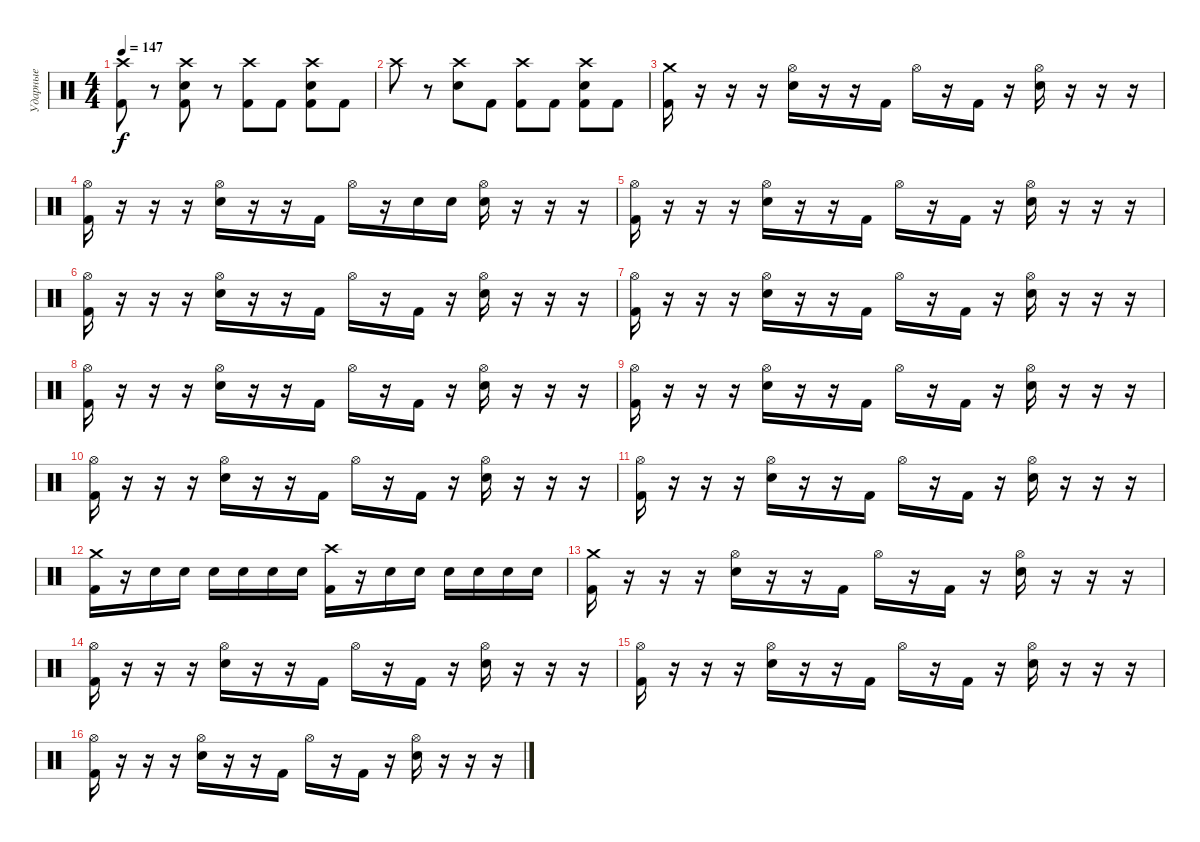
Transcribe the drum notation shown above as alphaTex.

\track ("Ударные" "Ударные") {instrument percussion}
\staff {score}
\articulation defaults
\ts (4 4)
\tempo 147
\clef neutral
\ks c
("Crash high (hit)" "Kick (hit) 2").8{dy f} r.8 ("Crash high (hit)" "Electric Snare (hit)" "Kick (hit) 2").8 r.8 ("Crash high (hit)" "Kick (hit) 2").8 "Kick (hit) 2".8 ("Crash high (hit)" "Electric Snare (hit)" "Kick (hit) 2").8 "Kick (hit) 2".8 |
"Crash high (hit)".8 r.8 ("Crash high (hit)" "Electric Snare (hit)").8 "Kick (hit) 2".8 ("Crash high (hit)" "Kick (hit) 2").8 "Kick (hit) 2".8 ("Crash high (hit)" "Electric Snare (hit)" "Kick (hit) 2").8 "Kick (hit) 2".8 |
("Crash medium (hit)" "Kick (hit) 2").16 r.16 r.16 r.16 ("Hi-Hat (open)" "Electric Snare (hit)").16 r.16 r.16 "Kick (hit) 2".16 "Hi-Hat (open)".16 r.16 "Kick (hit) 2".16 r.16 ("Hi-Hat (open)" "Electric Snare (hit)").16 r.16 r.16 r.16 |
("Hi-Hat (open)" "Kick (hit) 2").16 r.16 r.16 r.16 ("Hi-Hat (open)" "Electric Snare (hit)").16 r.16 r.16 "Kick (hit) 2".16 "Hi-Hat (open)".16 r.16 "Electric Snare (hit)".16 "Electric Snare (hit)".16 ("Hi-Hat (open)" "Electric Snare (hit)").16 r.16 r.16 r.16 |
("Hi-Hat (open)" "Kick (hit) 2").16 r.16 r.16 r.16 ("Hi-Hat (open)" "Electric Snare (hit)").16 r.16 r.16 "Kick (hit) 2".16 "Hi-Hat (open)".16 r.16 "Kick (hit) 2".16 r.16 ("Hi-Hat (open)" "Electric Snare (hit)").16 r.16 r.16 r.16 |
("Hi-Hat (open)" "Kick (hit) 2").16 r.16 r.16 r.16 ("Hi-Hat (open)" "Electric Snare (hit)").16 r.16 r.16 "Kick (hit) 2".16 "Hi-Hat (open)".16 r.16 "Kick (hit) 2".16 r.16 ("Hi-Hat (open)" "Electric Snare (hit)").16 r.16 r.16 r.16 |
("Hi-Hat (open)" "Kick (hit) 2").16 r.16 r.16 r.16 ("Hi-Hat (open)" "Electric Snare (hit)").16 r.16 r.16 "Kick (hit) 2".16 "Hi-Hat (open)".16 r.16 "Kick (hit) 2".16 r.16 ("Hi-Hat (open)" "Electric Snare (hit)").16 r.16 r.16 r.16 |
("Hi-Hat (open)" "Kick (hit) 2").16 r.16 r.16 r.16 ("Hi-Hat (open)" "Electric Snare (hit)").16 r.16 r.16 "Kick (hit) 2".16 "Hi-Hat (open)".16 r.16 "Kick (hit) 2".16 r.16 ("Hi-Hat (open)" "Electric Snare (hit)").16 r.16 r.16 r.16 |
("Hi-Hat (open)" "Kick (hit) 2").16 r.16 r.16 r.16 ("Hi-Hat (open)" "Electric Snare (hit)").16 r.16 r.16 "Kick (hit) 2".16 "Hi-Hat (open)".16 r.16 "Kick (hit) 2".16 r.16 ("Hi-Hat (open)" "Electric Snare (hit)").16 r.16 r.16 r.16 |
("Hi-Hat (open)" "Kick (hit) 2").16 r.16 r.16 r.16 ("Hi-Hat (open)" "Electric Snare (hit)").16 r.16 r.16 "Kick (hit) 2".16 "Hi-Hat (open)".16 r.16 "Kick (hit) 2".16 r.16 ("Hi-Hat (open)" "Electric Snare (hit)").16 r.16 r.16 r.16 |
("Hi-Hat (open)" "Kick (hit) 2").16 r.16 r.16 r.16 ("Hi-Hat (open)" "Electric Snare (hit)").16 r.16 r.16 "Kick (hit) 2".16 "Hi-Hat (open)".16 r.16 "Kick (hit) 2".16 r.16 ("Hi-Hat (open)" "Electric Snare (hit)").16 r.16 r.16 r.16 |
("Crash medium (hit)" "Kick (hit) 2").16 r.16 "Electric Snare (hit)".16 "Electric Snare (hit)".16 "Electric Snare (hit)".16 "Electric Snare (hit)".16 "Electric Snare (hit)".16 "Electric Snare (hit)".16 ("Crash high (hit)" "Kick (hit) 2").16 r.16 "Electric Snare (hit)".16 "Electric Snare (hit)".16 "Electric Snare (hit)".16 "Electric Snare (hit)".16 "Electric Snare (hit)".16 "Electric Snare (hit)".16 |
("Crash medium (hit)" "Kick (hit) 2").16 r.16 r.16 r.16 ("Hi-Hat (open)" "Electric Snare (hit)").16 r.16 r.16 "Kick (hit) 2".16 "Hi-Hat (open)".16 r.16 "Kick (hit) 2".16 r.16 ("Hi-Hat (open)" "Electric Snare (hit)").16 r.16 r.16 r.16 |
("Hi-Hat (open)" "Kick (hit) 2").16 r.16 r.16 r.16 ("Hi-Hat (open)" "Electric Snare (hit)").16 r.16 r.16 "Kick (hit) 2".16 "Hi-Hat (open)".16 r.16 "Kick (hit) 2".16 r.16 ("Hi-Hat (open)" "Electric Snare (hit)").16 r.16 r.16 r.16 |
("Hi-Hat (open)" "Kick (hit) 2").16 r.16 r.16 r.16 ("Hi-Hat (open)" "Electric Snare (hit)").16 r.16 r.16 "Kick (hit) 2".16 "Hi-Hat (open)".16 r.16 "Kick (hit) 2".16 r.16 ("Hi-Hat (open)" "Electric Snare (hit)").16 r.16 r.16 r.16 |
("Hi-Hat (open)" "Kick (hit) 2").16 r.16 r.16 r.16 ("Hi-Hat (open)" "Electric Snare (hit)").16 r.16 r.16 "Kick (hit) 2".16 "Hi-Hat (open)".16 r.16 "Kick (hit) 2".16 r.16 ("Hi-Hat (open)" "Electric Snare (hit)").16 r.16 r.16 r.16
